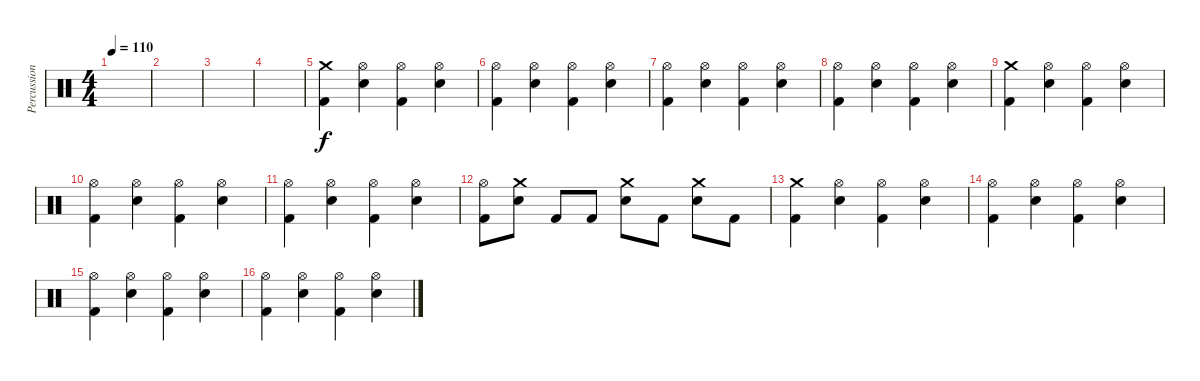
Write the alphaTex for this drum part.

\track ("Percussion" "Percussion") {instrument percussion}
\staff {score}
\articulation defaults
\ts (4 4)
\tempo 110
\clef neutral
\ks c
|
|
|
|
("Crash medium (hit)" "Kick (hit) 2").4 ("Hi-Hat (open)" "Snare (hit) 2").4 ("Hi-Hat (open)" "Kick (hit) 2").4 ("Hi-Hat (open)" "Snare (hit) 2").4 |
("Hi-Hat (open)" "Kick (hit) 2").4 ("Hi-Hat (open)" "Snare (hit) 2").4 ("Hi-Hat (open)" "Kick (hit) 2").4 ("Hi-Hat (open)" "Snare (hit) 2").4 |
("Hi-Hat (open)" "Kick (hit) 2").4 ("Hi-Hat (open)" "Snare (hit) 2").4 ("Hi-Hat (open)" "Kick (hit) 2").4 ("Hi-Hat (open)" "Snare (hit) 2").4 |
("Hi-Hat (open)" "Kick (hit) 2").4 ("Hi-Hat (open)" "Snare (hit) 2").4 ("Hi-Hat (open)" "Kick (hit) 2").4 ("Hi-Hat (open)" "Snare (hit) 2").4 |
("Crash medium (hit)" "Kick (hit) 2").4 ("Hi-Hat (open)" "Snare (hit) 2").4 ("Hi-Hat (open)" "Kick (hit) 2").4 ("Hi-Hat (open)" "Snare (hit) 2").4 |
("Hi-Hat (open)" "Kick (hit) 2").4 ("Hi-Hat (open)" "Snare (hit) 2").4 ("Hi-Hat (open)" "Kick (hit) 2").4 ("Hi-Hat (open)" "Snare (hit) 2").4 |
("Hi-Hat (open)" "Kick (hit) 2").4 ("Hi-Hat (open)" "Snare (hit) 2").4 ("Hi-Hat (open)" "Kick (hit) 2").4 ("Hi-Hat (open)" "Snare (hit) 2").4 |
("Hi-Hat (open)" "Kick (hit) 2").8 ("Crash medium (hit)" "Snare (hit) 2").8 "Kick (hit) 2".8 "Kick (hit) 2".8 ("Crash medium (hit)" "Snare (hit) 2").8 "Kick (hit) 2".8 ("Crash medium (hit)" "Snare (hit) 2").8 "Kick (hit) 2".8 |
("Crash medium (hit)" "Kick (hit) 2").4 ("Hi-Hat (open)" "Snare (hit) 2").4 ("Hi-Hat (open)" "Kick (hit) 2").4 ("Hi-Hat (open)" "Snare (hit) 2").4 |
("Hi-Hat (open)" "Kick (hit) 2").4 ("Hi-Hat (open)" "Snare (hit) 2").4 ("Hi-Hat (open)" "Kick (hit) 2").4 ("Hi-Hat (open)" "Snare (hit) 2").4 |
("Hi-Hat (open)" "Kick (hit) 2").4 ("Hi-Hat (open)" "Snare (hit) 2").4 ("Hi-Hat (open)" "Kick (hit) 2").4 ("Hi-Hat (open)" "Snare (hit) 2").4 |
("Hi-Hat (open)" "Kick (hit) 2").4 ("Hi-Hat (open)" "Snare (hit) 2").4 ("Hi-Hat (open)" "Kick (hit) 2").4 ("Hi-Hat (open)" "Snare (hit) 2").4
